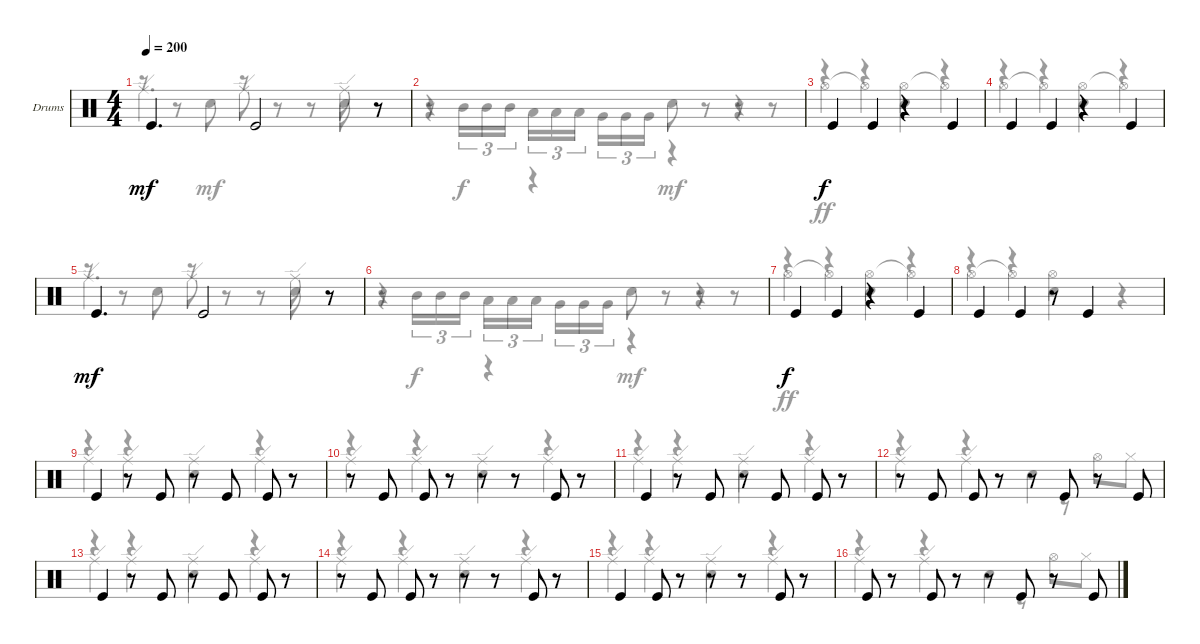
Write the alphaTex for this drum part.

\defaultSystemsLayout 4
\bracketExtendMode groupsimilarinstruments
\firstSystemTrackNameOrientation horizontal
\otherSystemsTrackNameOrientation horizontal
\track ("Drum" "Drums") {instrument percussion}
\staff {score}
\articulation defaults
\voice
\ts (4 4)
\tempo 200
\clef neutral
\ks c "Kick (hit)".4{d dy mf} "Kick (hit)".2
r.8 |
|
"Kick (hit)".4{dy f} "Kick (hit)".4 r.4 "Kick (hit)".4 |
"Kick (hit)".4 "Kick (hit)".4 r.4 "Kick (hit)".4 |
"Kick (hit)".4{d dy mf} "Kick (hit)".2 r.8 |
|
"Kick (hit)".4{dy f} "Kick (hit)".4 r.4 "Kick (hit)".4 |
"Kick (hit)".4 "Kick (hit)".4 r.8 "Kick (hit)".4 |
"Kick (hit)".4 r.8 "Kick (hit)".8 r.8 "Kick (hit)".8 "Kick (hit)".8 r.8 |
r.8 "Kick (hit)".8 "Kick (hit)".8 r.8 r.8 r.8 "Kick (hit)".8 r.8 |
"Kick (hit)".4 r.8 "Kick (hit)".8 r.8 "Kick (hit)".8 "Kick (hit)".8 r.8 |
r.8 "Kick (hit)".8 "Kick (hit)".8 r.8 r.8 "Kick (hit)".8 r.8 "Kick (hit)".8 |
"Kick (hit)".4 r.8 "Kick (hit)".8 r.8 "Kick (hit)".8 "Kick (hit)".8 r.8 |
r.8 "Kick (hit)".8 "Kick (hit)".8 r.8 r.8 r.8 "Kick (hit)".8 r.8 |
"Kick (hit)".4 "Kick (hit)".8 r.8 r.8 r.8 "Kick (hit)".8 r.8 |
"Kick (hit)".8 r.8 "Kick (hit)".8 r.8 r.8 "Kick (hit)".8 r.8 "Kick (hit)".8
\voice
\clef neutral
\ottava regular
\simile none
\ks c
r.8{dy mf} r.8 "Snare (hit) 2".8 r.8 r.8 r.8 "Snare (hit) 2".8 r.8 |
r.8 "Mid Tom (hit)".16{tu (3 2) dy f} "Mid Tom (hit)".16{tu (3 2)} "Mid Tom (hit)".16{tu (3 2)} "Low Tom (hit)".16{tu (3 2)} "Low Tom (hit)".16{tu (3 2)} "Low Tom (hit)".16{tu (3 2)} "Very Low Tom (hit)".16{tu (3 2)} "Very Low Tom (hit)".16{tu (3 2)} "Very Low Tom (hit)".16{tu (3 2)} "Snare (hit) 2".8{dy mf} r.8 r.8 r.8 |
r.4 r.4 "Snare (hit) 2".4 r.4 |
r.4 r.4 "Snare (hit) 2".4 r.4 |
r.8 r.8 "Snare (hit) 2".8 r.8 r.8 r.8 "Snare (hit) 2".8 r.8 |
r.8 "Mid Tom (hit)".16{tu (3 2) dy f} "Mid Tom (hit)".16{tu (3 2)} "Mid Tom (hit)".16{tu (3 2)} "Low Tom (hit)".16{tu (3 2)} "Low Tom (hit)".16{tu (3 2)} "Low Tom (hit)".16{tu (3 2)} "Very Low Tom (hit)".16{tu (3 2)} "Very Low Tom (hit)".16{tu (3 2)} "Very Low Tom (hit)".16{tu (3 2)} "Snare (hit) 2".8{dy mf} r.8 r.8 r.8 |
r.4 r.4 "Snare (hit) 2".4 r.4 |
r.4 r.4 "Snare (hit) 2".4 r.4 |
r.4 r.4 "Snare (hit) 2".4 r.4 |
r.4 r.4 "Snare (hit) 2".4 r.4 |
r.4 r.4 "Snare (hit) 2".4 r.4 |
r.4 r.4 "Snare (hit) 2".4 |
r.4 r.4 "Snare (hit) 2".4 r.4 |
r.4 r.4 "Snare (hit) 2".4 r.4 |
r.4 r.4 "Snare (hit) 2".4 r.4 |
r.4 r.4 "Snare (hit) 2".4
\voice
\clef neutral
\ottava regular
\simile none
\ks c "Ride (edge)".4{d dy mf} "Ride (edge)".8
r.8 r.8 "Ride (edge)".8 r.8 |
r.4 r.4 r.4 r.4 |
"Hi-Hat (open)".4{dy ff} "Hi-Hat (open)"{t}.4 "Hi-Hat (open)".4 "Hi-Hat (open)"{t}.4 |
"Hi-Hat (open)".4 "Hi-Hat (open)"{t}.4 "Hi-Hat (open)".4 "Hi-Hat (open)"{t}.4 |
"Ride (edge)".4{d dy mf} "Ride (edge)".8 r.8 r.8 "Ride (edge)".8 r.8 |
r.4 r.4 r.4 r.4 |
"Hi-Hat (open)".4{dy ff} "Hi-Hat (open)"{t}.4 "Hi-Hat (open)".4 "Hi-Hat (open)"{t}.4 |
"Hi-Hat (open)".4 "Hi-Hat (open)"{t}.4 "Hi-Hat (open)".4 r.4 |
"Ride (edge)".4 "Ride (edge)".4 "Ride (edge)".4 "Ride (edge)".4 |
"Ride (edge)".4 "Ride (edge)".4 "Ride (edge)".4 "Ride (edge)".4 |
"Ride (edge)".4 "Ride (edge)".4 "Ride (edge)".4 "Ride (edge)".4 |
"Ride (edge)".4 "Ride (edge)".4 r.8 r.8 "Hi-Hat (open)".8 "Hi-Hat (closed)".8 |
"Ride (edge)".4 "Ride (edge)".4 "Ride (edge)".4 "Ride (edge)".4 |
"Ride (edge)".4 "Ride (edge)".4 "Ride (edge)".4 "Ride (edge)".4 |
"Ride (edge)".4 "Ride (edge)".4 "Ride (edge)".4 "Ride (edge)".4 |
"Ride (edge)".4 "Ride (edge)".4 r.8 r.8 "Hi-Hat (open)".8 "Hi-Hat (closed)".8
